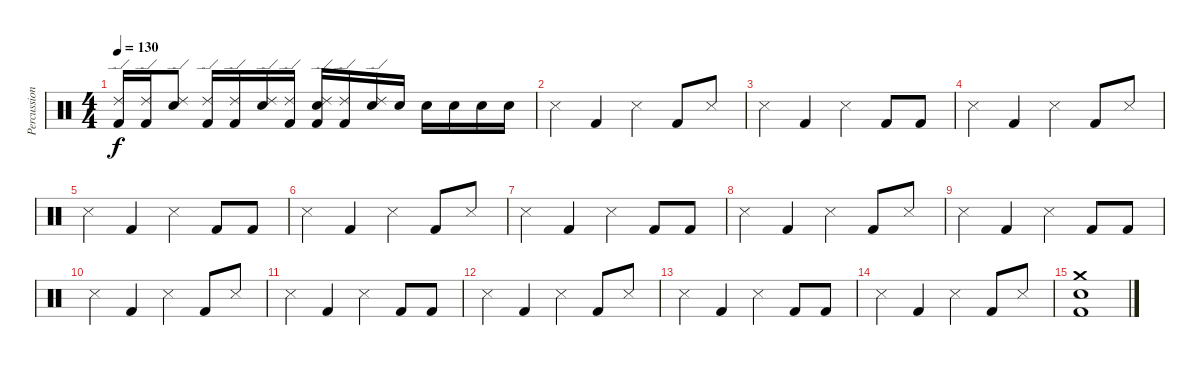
\track ("Percussion" "Percussion") {instrument percussion}
\staff {score}
\articulation defaults
\ts (4 4)
\tempo 130
\clef neutral
\ks c
("Kick (hit) 2" "Ride (edge) 2").16{dy f} ("Kick (hit) 2" "Ride (edge) 2").16 ("Snare (hit) 2" "Ride (edge) 2").8 ("Kick (hit) 2" "Ride (edge) 2").16 ("Kick (hit) 2" "Ride (edge) 2").16 ("Snare (hit) 2" "Ride (edge) 2").16 ("Kick (hit) 2" "Ride (edge) 2").16 ("Kick (hit) 2" "Snare (hit) 2" "Ride (edge) 2").16 ("Kick (hit) 2" "Ride (edge) 2").16 ("Snare (hit) 2" "Ride (edge) 2").16 "Snare (hit) 2".16 "Snare (hit) 2".16 "Snare (hit) 2".16 "Snare (hit) 2".16 "Snare (hit) 2".16 |
"Snare (side stick) 3".4 "Kick (hit) 2".4 "Snare (side stick) 3".4 "Kick (hit) 2".8 "Snare (side stick) 3".8 |
"Snare (side stick) 3".4 "Kick (hit) 2".4 "Snare (side stick) 3".4 "Kick (hit) 2".8 "Kick (hit) 2".8 |
"Snare (side stick) 3".4 "Kick (hit) 2".4 "Snare (side stick) 3".4 "Kick (hit) 2".8 "Snare (side stick) 3".8 |
"Snare (side stick) 3".4 "Kick (hit) 2".4 "Snare (side stick) 3".4 "Kick (hit) 2".8 "Kick (hit) 2".8 |
"Snare (side stick) 3".4 "Kick (hit) 2".4 "Snare (side stick) 3".4 "Kick (hit) 2".8 "Snare (side stick) 3".8 |
"Snare (side stick) 3".4 "Kick (hit) 2".4 "Snare (side stick) 3".4 "Kick (hit) 2".8 "Kick (hit) 2".8 |
"Snare (side stick) 3".4 "Kick (hit) 2".4 "Snare (side stick) 3".4 "Kick (hit) 2".8 "Snare (side stick) 3".8 |
"Snare (side stick) 3".4 "Kick (hit) 2".4 "Snare (side stick) 3".4 "Kick (hit) 2".8 "Kick (hit) 2".8 |
"Snare (side stick) 3".4 "Kick (hit) 2".4 "Snare (side stick) 3".4 "Kick (hit) 2".8 "Snare (side stick) 3".8 |
"Snare (side stick) 3".4 "Kick (hit) 2".4 "Snare (side stick) 3".4 "Kick (hit) 2".8 "Kick (hit) 2".8 |
"Snare (side stick) 3".4 "Kick (hit) 2".4 "Snare (side stick) 3".4 "Kick (hit) 2".8 "Snare (side stick) 3".8 |
"Snare (side stick) 3".4 "Kick (hit) 2".4 "Snare (side stick) 3".4 "Kick (hit) 2".8 "Kick (hit) 2".8 |
"Snare (side stick) 3".4 "Kick (hit) 2".4 "Snare (side stick) 3".4 "Kick (hit) 2".8 "Snare (side stick) 3".8 |
("Kick (hit) 2" "Snare (hit) 2" "Crash medium (hit)").1
